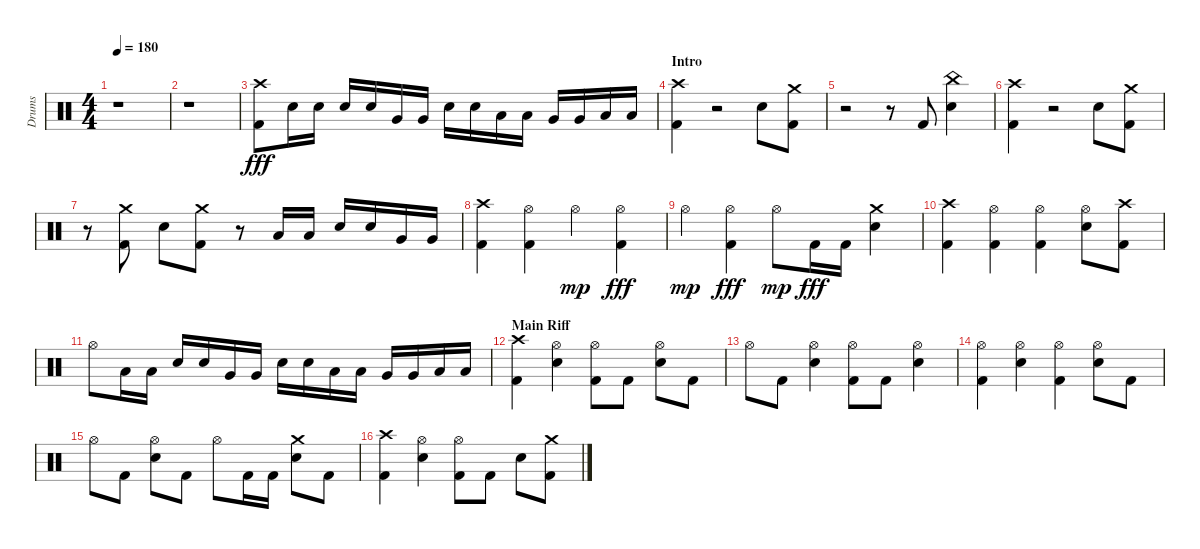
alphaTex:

\track ("Drums" "Drums") {instrument percussion}
\staff {score}
\articulation defaults
\ts (4 4)
\tempo 180
\clef neutral
\ks aminor
r.1{dy fff} |
r.1 |
("Kick (hit) 2" "Crash high (hit)").8 "Snare (hit) 2".16 "Snare (hit) 2".16 "Snare (hit) 2".16 "Snare (hit) 2".16 "Very Low Tom (hit)".16 "Very Low Tom (hit)".16 "Snare (hit) 2".16 "Snare (hit) 2".16 "Low Tom (hit)".16 "Low Tom (hit)".16 "Very Low Tom (hit)".16 "Very Low Tom (hit)".16 "Low Floor Tom (hit)".16 "Low Floor Tom (hit)".16 |
\section ("" "Intro")
("Kick (hit) 2" "Crash high (hit)").4 r.2 "Snare (hit) 2".8 ("Kick (hit) 2" "Crash medium (hit)").8 |
r.2 r.8 "Kick (hit) 2".8 ("Snare (hit) 2" "China (hit)").4 |
("Kick (hit) 2" "Crash high (hit)").4 r.2 "Snare (hit) 2".8 ("Kick (hit) 2" "Crash medium (hit)").8 |
r.8 ("Kick (hit) 2" "Crash medium (hit)").8 "Snare (hit) 2".8 ("Kick (hit) 2" "Crash medium (hit)").8 r.8 "Low Tom (hit)".16 "Low Tom (hit)".16 "Snare (hit) 2".16 "Snare (hit) 2".16 "Very Low Tom (hit)".16 "Very Low Tom (hit)".16 |
("Kick (hit) 2" "Crash high (hit)").4 ("Kick (hit) 2" "Hi-Hat (open)").4 "Hi-Hat (open)".4{dy mp} ("Kick (hit) 2" "Hi-Hat (open)").4{dy fff} |
"Hi-Hat (open)".4{dy mp} ("Kick (hit) 2" "Hi-Hat (open)").4{dy fff} "Hi-Hat (open)".8{dy mp} "Kick (hit) 2".16{dy fff} "Kick (hit) 2".16 ("Snare (hit) 2" "Crash medium (hit)").4 |
("Kick (hit) 2" "Crash high (hit)").4 ("Kick (hit) 2" "Hi-Hat (open)").4 ("Kick (hit) 2" "Hi-Hat (open)").4 ("Snare (hit) 2" "Hi-Hat (open)").8 ("Kick (hit) 2" "Crash high (hit)").8 |
"Hi-Hat (open)".8 "Low Floor Tom (hit)".16 "Low Floor Tom (hit)".16 "Snare (hit) 2".16 "Snare (hit) 2".16 "Very Low Tom (hit)".16 "Very Low Tom (hit)".16 "Snare (hit) 2".16 "Snare (hit) 2".16 "Low Tom (hit)".16 "Low Tom (hit)".16 "Very Low Tom (hit)".16 "Very Low Tom (hit)".16 "Low Floor Tom (hit)".16 "Low Floor Tom (hit)".16 |
\section ("" "Main Riff")
("Kick (hit) 2" "Crash high (hit)").4 ("Snare (hit) 2" "Hi-Hat (open)").4 ("Kick (hit) 2" "Hi-Hat (open)").8 "Kick (hit) 2".8 ("Snare (hit) 2" "Hi-Hat (open)").8 "Kick (hit) 2".8 |
"Hi-Hat (open)".8 "Kick (hit) 2".8 ("Snare (hit) 2" "Hi-Hat (open)").4 ("Kick (hit) 2" "Hi-Hat (open)").8 "Kick (hit) 2".8 ("Snare (hit) 2" "Hi-Hat (open)").4 |
("Kick (hit) 2" "Hi-Hat (open)").4 ("Snare (hit) 2" "Hi-Hat (open)").4 ("Kick (hit) 2" "Hi-Hat (open)").4 ("Snare (hit) 2" "Hi-Hat (open)").8 "Kick (hit) 2".8 |
"Hi-Hat (open)".8 "Kick (hit) 2".8 ("Snare (hit) 2" "Hi-Hat (open)").8 "Kick (hit) 2".8 "Hi-Hat (open)".8 "Kick (hit) 2".16 "Kick (hit) 2".16 ("Snare (hit) 2" "Crash medium (hit)").8 "Kick (hit) 2".8 |
("Kick (hit) 2" "Crash high (hit)").4 ("Snare (hit) 2" "Hi-Hat (open)").4 ("Kick (hit) 2" "Hi-Hat (open)").8 "Kick (hit) 2".8 "Snare (hit) 2".8 ("Kick (hit) 2" "Crash medium (hit)").8
